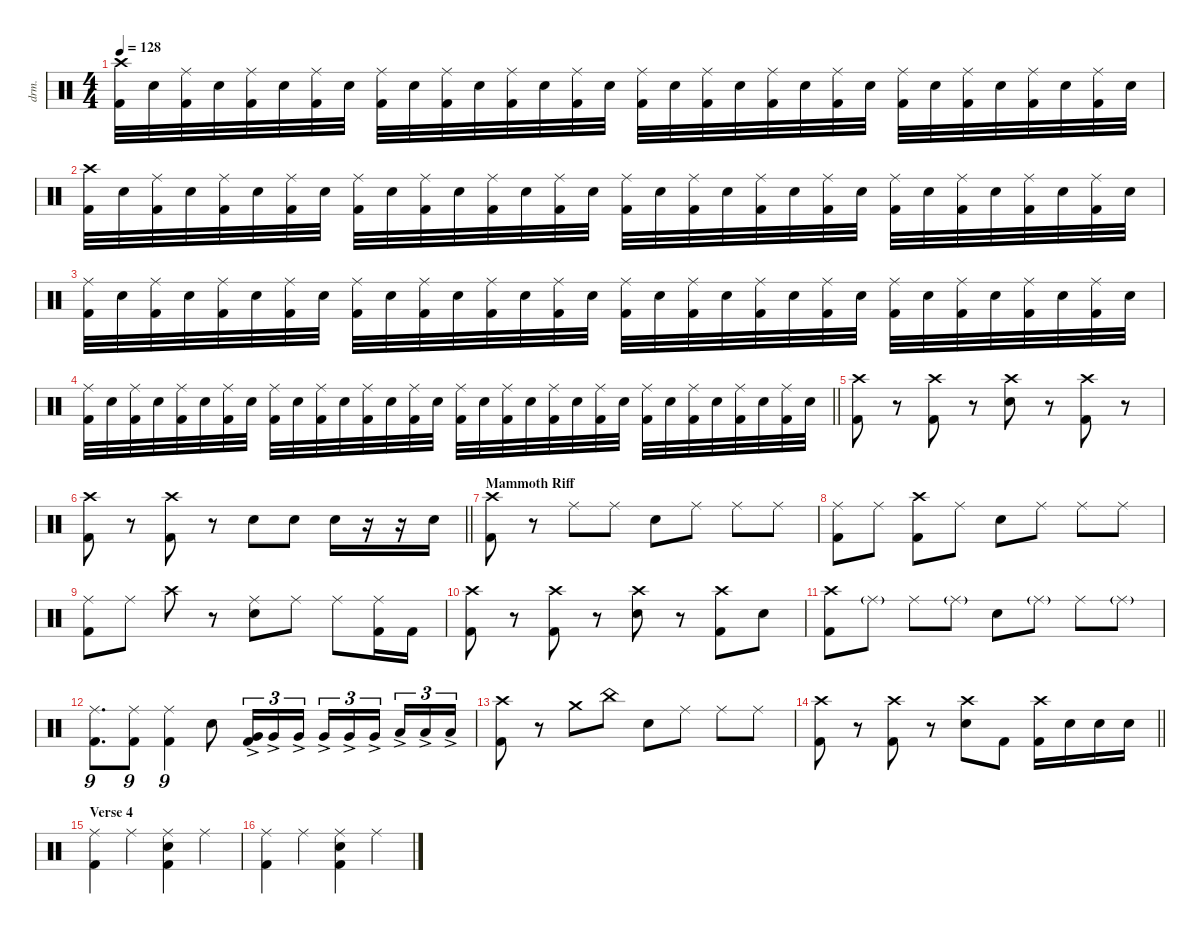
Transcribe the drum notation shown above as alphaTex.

\defaultSystemsLayout 4
\hideDynamics
\bracketExtendMode nobrackets
\otherSystemsTrackNameOrientation horizontal
\track ("Drums" "drm.") {instrument percussion}
\staff {score}
\articulation defaults
\ts (4 4)
\tempo 128
\clef neutral
\ks c
("Crash high (hit)" "Kick (hit) 2").32{dy f beam Down} "Snare (hit) 2".32{beam Down} ("Ride (middle)" "Kick (hit) 2").32{beam Down} "Snare (hit) 2".32{beam Down} ("Ride (middle)" "Kick (hit) 2").32{beam Down} "Snare (hit) 2".32{beam Down} ("Ride (middle)" "Kick (hit) 2").32{beam Down} "Snare (hit) 2".32{beam Down} ("Ride (middle)" "Kick (hit) 2").32{beam Down} "Snare (hit) 2".32{beam Down} ("Ride (middle)" "Kick (hit) 2").32{beam Down} "Snare (hit) 2".32{beam Down} ("Ride (middle)" "Kick (hit) 2").32{beam Down} "Snare (hit) 2".32{beam Down} ("Ride (middle)" "Kick (hit) 2").32{beam Down} "Snare (hit) 2".32{beam Down} ("Ride (middle)" "Kick (hit) 2").32{beam Down} "Snare (hit) 2".32{beam Down} ("Ride (middle)" "Kick (hit) 2").32{beam Down} "Snare (hit) 2".32{beam Down} ("Ride (middle)" "Kick (hit) 2").32{beam Down} "Snare (hit) 2".32{beam Down} ("Ride (middle)" "Kick (hit) 2").32{beam Down} "Snare (hit) 2".32{beam Down} ("Ride (middle)" "Kick (hit) 2").32{beam Down} "Snare (hit) 2".32{beam Down} ("Ride (middle)" "Kick (hit) 2").32{beam Down} "Snare (hit) 2".32{beam Down} ("Ride (middle)" "Kick (hit) 2").32{beam Down} "Snare (hit) 2".32{beam Down} ("Ride (middle)" "Kick (hit) 2").32{beam Down} "Snare (hit) 2".32{beam Down} |
("Crash high (hit)" "Kick (hit) 2").32{beam Down} "Snare (hit) 2".32{beam Down} ("Ride (middle)" "Kick (hit) 2").32{beam Down} "Snare (hit) 2".32{beam Down} ("Ride (middle)" "Kick (hit) 2").32{beam Down} "Snare (hit) 2".32{beam Down} ("Ride (middle)" "Kick (hit) 2").32{beam Down} "Snare (hit) 2".32{beam Down} ("Ride (middle)" "Kick (hit) 2").32{beam Down} "Snare (hit) 2".32{beam Down} ("Ride (middle)" "Kick (hit) 2").32{beam Down} "Snare (hit) 2".32{beam Down} ("Ride (middle)" "Kick (hit) 2").32{beam Down} "Snare (hit) 2".32{beam Down} ("Ride (middle)" "Kick (hit) 2").32{beam Down} "Snare (hit) 2".32{beam Down} ("Ride (middle)" "Kick (hit) 2").32{beam Down} "Snare (hit) 2".32{beam Down} ("Ride (middle)" "Kick (hit) 2").32{beam Down} "Snare (hit) 2".32{beam Down} ("Ride (middle)" "Kick (hit) 2").32{beam Down} "Snare (hit) 2".32{beam Down} ("Ride (middle)" "Kick (hit) 2").32{beam Down} "Snare (hit) 2".32{beam Down} ("Ride (middle)" "Kick (hit) 2").32{beam Down} "Snare (hit) 2".32{beam Down} ("Ride (middle)" "Kick (hit) 2").32{beam Down} "Snare (hit) 2".32{beam Down} ("Ride (middle)" "Kick (hit) 2").32{beam Down} "Snare (hit) 2".32{beam Down} ("Ride (middle)" "Kick (hit) 2").32{beam Down} "Snare (hit) 2".32{beam Down} |
("Ride (middle)" "Kick (hit) 2").32{beam Down} "Snare (hit) 2".32{beam Down} ("Ride (middle)" "Kick (hit) 2").32{beam Down} "Snare (hit) 2".32{beam Down} ("Ride (middle)" "Kick (hit) 2").32{beam Down} "Snare (hit) 2".32{beam Down} ("Ride (middle)" "Kick (hit) 2").32{beam Down} "Snare (hit) 2".32{beam Down} ("Ride (middle)" "Kick (hit) 2").32{beam Down} "Snare (hit) 2".32{beam Down} ("Ride (middle)" "Kick (hit) 2").32{beam Down} "Snare (hit) 2".32{beam Down} ("Ride (middle)" "Kick (hit) 2").32{beam Down} "Snare (hit) 2".32{beam Down} ("Ride (middle)" "Kick (hit) 2").32{beam Down} "Snare (hit) 2".32{beam Down} ("Ride (middle)" "Kick (hit) 2").32{beam Down} "Snare (hit) 2".32{beam Down} ("Ride (middle)" "Kick (hit) 2").32{beam Down} "Snare (hit) 2".32{beam Down} ("Ride (middle)" "Kick (hit) 2").32{beam Down} "Snare (hit) 2".32{beam Down} ("Ride (middle)" "Kick (hit) 2").32{beam Down} "Snare (hit) 2".32{beam Down} ("Ride (middle)" "Kick (hit) 2").32{beam Down} "Snare (hit) 2".32{beam Down} ("Ride (middle)" "Kick (hit) 2").32{beam Down} "Snare (hit) 2".32{beam Down} ("Ride (middle)" "Kick (hit) 2").32{beam Down} "Snare (hit) 2".32{beam Down} ("Ride (middle)" "Kick (hit) 2").32{beam Down} "Snare (hit) 2".32{beam Down} |
\barLineRight lightlight
("Ride (middle)" "Kick (hit) 2").32{beam Down} "Snare (hit) 2".32{beam Down} ("Ride (middle)" "Kick (hit) 2").32{beam Down} "Snare (hit) 2".32{beam Down} ("Ride (middle)" "Kick (hit) 2").32{beam Down} "Snare (hit) 2".32{beam Down} ("Ride (middle)" "Kick (hit) 2").32{beam Down} "Snare (hit) 2".32{beam Down} ("Ride (middle)" "Kick (hit) 2").32{beam Down} "Snare (hit) 2".32{beam Down} ("Ride (middle)" "Kick (hit) 2").32{beam Down} "Snare (hit) 2".32{beam Down} ("Ride (middle)" "Kick (hit) 2").32{beam Down} "Snare (hit) 2".32{beam Down} ("Ride (middle)" "Kick (hit) 2").32{beam Down} "Snare (hit) 2".32{beam Down} ("Ride (middle)" "Kick (hit) 2").32{beam Down} "Snare (hit) 2".32{beam Down} ("Ride (middle)" "Kick (hit) 2").32{beam Down} "Snare (hit) 2".32{beam Down} ("Ride (middle)" "Kick (hit) 2").32{beam Down} "Snare (hit) 2".32{beam Down} ("Ride (middle)" "Kick (hit) 2").32{beam Down} "Snare (hit) 2".32{beam Down} ("Ride (middle)" "Kick (hit) 2").32{beam Down} "Snare (hit) 2".32{beam Down} ("Ride (middle)" "Kick (hit) 2").32{beam Down} "Snare (hit) 2".32{beam Down} ("Ride (middle)" "Kick (hit) 2").32{beam Down} "Snare (hit) 2".32{beam Down} ("Ride (middle)" "Kick (hit) 2").32{beam Down} "Snare (hit) 2".32{beam Down} |
("Crash high (hit)" "Kick (hit) 2").8{beam Down} r.8{beam Down} ("Crash high (hit)" "Kick (hit) 2").8{beam Down} r.8{beam Down} ("Crash high (hit)" "Snare (hit) 2").8{beam Down} r.8{beam Down} ("Crash high (hit)" "Kick (hit) 2").8{beam Down} r.8{beam Down} |
\barLineRight lightlight
("Crash high (hit)" "Kick (hit) 2").8{beam Down} r.8{beam Down} ("Crash high (hit)" "Kick (hit) 2").8{beam Down} r.8{beam Down} "Snare (hit) 2".8{beam Down} "Snare (hit) 2".8{beam Down} "Snare (hit) 2".16{beam Down} r.16{beam Down} r.16{beam Down} "Snare (hit) 2".16{beam Down} |
\section ("" "Mammoth Riff")
("Crash high (hit)" "Kick (hit) 2").8{beam Down} r.8{beam Down} "Ride (middle)".8{beam Down} "Ride (middle)".8{beam Down} "Snare (hit) 2".8{beam Down} "Ride (middle)".8{beam Down} "Ride (middle)".8{beam Down} "Ride (middle)".8{beam Down} |
("Ride (middle)" "Kick (hit) 2").8{beam Down} "Ride (middle)".8{beam Down} ("Crash high (hit)" "Kick (hit) 2").8{beam Down} "Ride (middle)".8{beam Down} "Snare (hit) 2".8{beam Down} "Ride (middle)".8{beam Down} "Ride (middle)".8{beam Down} "Ride (middle)".8{beam Down} |
("Ride (middle)" "Kick (hit) 2").8{beam Down} "Ride (middle)".8{beam Down} "Crash high (hit)".8{beam Down} r.8{beam Down} ("Ride (middle)" "Snare (hit) 2").8{beam Down} "Ride (middle)".8{beam Down} "Ride (middle)".8{beam Down} ("Ride (middle)" "Kick (hit) 2").16{beam Down} "Kick (hit) 2".16{beam Down} |
("Crash high (hit)" "Kick (hit) 2").8{beam Down} r.8{beam Down} ("Crash high (hit)" "Kick (hit) 2").8{beam Down} r.8{beam Down} ("Crash high (hit)" "Snare (hit) 2").8{beam Down} r.8{beam Down} ("Crash high (hit)" "Kick (hit) 2").8{beam Down} "Snare (hit) 2".8{beam Down} |
("Crash high (hit)" "Kick (hit) 2").8{beam Down} "Ride (middle)"{g}.8{beam Down} "Ride (middle)".8{beam Down} "Ride (middle)"{g}.8{beam Down} "Snare (hit) 2".8{beam Down} "Ride (middle)"{g}.8{beam Down} "Ride (middle)".8{beam Down} "Ride (middle)"{g}.8{beam Down} |
("Ride (middle)" "Kick (hit) 2").8{d tu (9 8) beam Down} ("Ride (middle)" "Kick (hit) 2").8{tu (9 8) beam Down} ("Ride (middle)" "Kick (hit) 2").4{tu (9 8) beam Down} "Snare (hit) 2".8{beam Down} ("Very Low Tom (hit)"{ac} "Kick (hit) 2").16{tu (3 2) beam Up} "Very Low Tom (hit)"{ac}.16{tu (3 2) dy mf beam Up} "Very Low Tom (hit)"{ac}.16{tu (3 2) beam Up} "Very Low Tom (hit)"{ac}.16{tu (3 2) beam Up} "Very Low Tom (hit)"{ac}.16{tu (3 2) beam Up} "Very Low Tom (hit)"{ac}.16{tu (3 2) beam Up} "Low Floor Tom (hit)"{ac}.16{tu (3 2) beam Up} "Low Floor Tom (hit)"{ac}.16{tu (3 2) beam Up} "Low Floor Tom (hit)"{ac}.16{tu (3 2) beam Up} |
("Crash high (hit)" "Kick (hit) 2").8{dy f beam Down} r.8{beam Down} "Crash medium (hit)".8{beam Down} "China (hit)".8{beam Down} "Snare (hit) 2".8{beam Down} "Ride (middle)".8{beam Down} "Ride (middle)".8{beam Down} "Ride (middle)".8{beam Down} |
\barLineRight lightlight
("Crash high (hit)" "Kick (hit) 2").8{beam Down} r.8{beam Down} ("Crash high (hit)" "Kick (hit) 2").8{beam Down} r.8{beam Down} ("Crash high (hit)" "Snare (hit) 2").8{beam Down} "Kick (hit) 2".8{beam Down} ("Crash high (hit)" "Kick (hit) 2").16{beam Down} "Snare (hit) 2".16{beam Down} "Snare (hit) 2".16{beam Down} "Snare (hit) 2".16{beam Down} |
\section ("" "Verse 4")
("Ride (middle)" "Kick (hit) 2").4{beam Down} "Ride (middle)".4{beam Down} ("Ride (middle)" "Snare (hit) 2" "Kick (hit) 2").4{beam Down} "Ride (middle)".4{beam Down} |
("Ride (middle)" "Kick (hit) 2").4{beam Down} "Ride (middle)".4{beam Down} ("Ride (middle)" "Snare (hit) 2" "Kick (hit) 2").4{beam Down} "Ride (middle)".4{beam Down}
